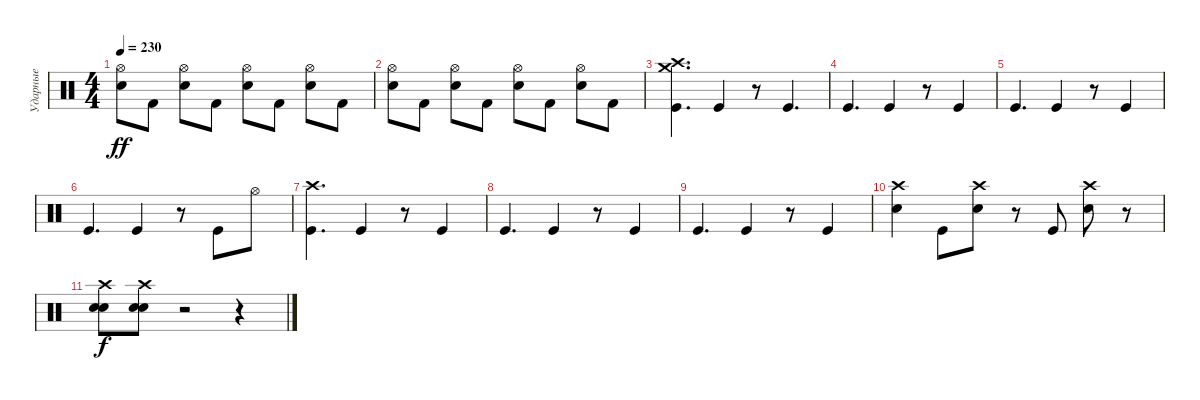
\track ("Ударные" "Ударные") {instrument percussion}
\staff {score}
\articulation defaults
\ts (4 4)
\tempo 230
\clef neutral
\ks c
("Snare (hit) 2" "Hi-Hat (open)").8{dy ff} "Kick (hit) 2".8 ("Snare (hit) 2" "Hi-Hat (open)").8 "Kick (hit) 2".8 ("Snare (hit) 2" "Hi-Hat (open)").8 "Kick (hit) 2".8 ("Snare (hit) 2" "Hi-Hat (open)").8 "Kick (hit) 2".8 |
("Snare (hit) 2" "Hi-Hat (open)").8 "Kick (hit) 2".8 ("Snare (hit) 2" "Hi-Hat (open)").8 "Kick (hit) 2".8 ("Snare (hit) 2" "Hi-Hat (open)").8 "Kick (hit) 2".8 ("Snare (hit) 2" "Hi-Hat (open)").8 "Kick (hit) 2".8 |
("Crash medium (hit)" "Crash high (hit)" "Kick (hit)").4{d} "Kick (hit)".4 r.8 "Kick (hit)".4{d} |
"Kick (hit)".4{d} "Kick (hit)".4 r.8 "Kick (hit)".4 |
"Kick (hit)".4{d} "Kick (hit)".4 r.8 "Kick (hit)".4 |
"Kick (hit)".4{d} "Kick (hit)".4 r.8 "Kick (hit)".8 "Hi-Hat (open)".8 |
("Crash high (hit)" "Kick (hit)").4{d} "Kick (hit)".4 r.8 "Kick (hit)".4 |
"Kick (hit)".4{d} "Kick (hit)".4 r.8 "Kick (hit)".4 |
"Kick (hit)".4{d} "Kick (hit)".4 r.8 "Kick (hit)".4 |
("Crash high (hit)" "Snare (hit) 2").4 "Kick (hit)".8 ("Snare (hit) 2" "Crash high (hit)").8 r.8 "Kick (hit)".8 ("Crash high (hit)" "Snare (hit) 2").8 r.8 |
("Crash high (hit)" "Electric Snare (hit)" "Snare (hit) 2").8{dy f} ("Crash high (hit)" "Electric Snare (hit)" "Snare (hit) 2").8 r.2 r.4
